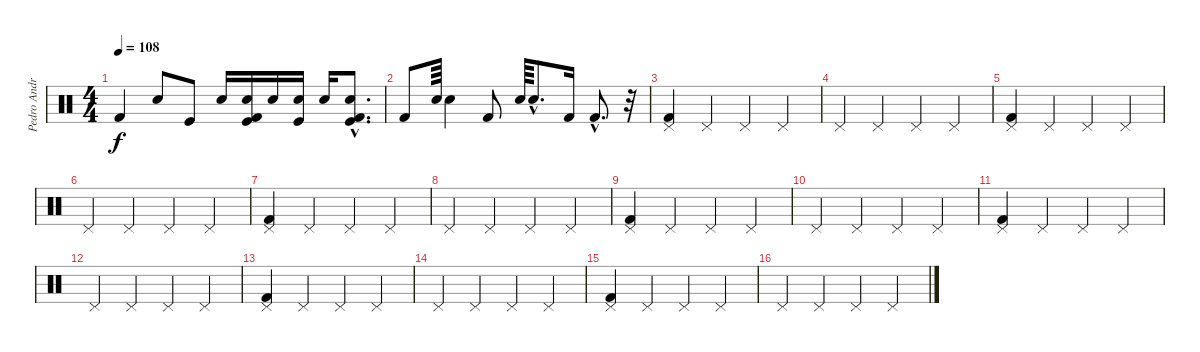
\track ("Pedro Andreu" "Pedro Andr") {instrument percussion}
\staff {score}
\articulation defaults
\ts (4 4)
\tempo 108
\clef neutral
\ks c "Kick (hit) 2".4{dy f} "Snare (hit) 2".8 "Kick (hit)".8 "Snare (hit) 2".16
("Snare (hit) 2" "Kick (hit) 2" "Kick (hit)").16 "Snare (hit) 2".16 ("Snare (hit) 2" "Kick (hit)").16 "Snare (hit) 2".16 ("Snare (hit) 2"{hac} "Kick (hit)"{hac} "Kick (hit) 2"{hac}).8{d} |
"Kick (hit) 2".8 "Snare (hit) 2".64 "Snare (hit) 2".4 "Kick (hit) 2".8 "Snare (hit) 2".64 "Snare (hit) 2"{hac}.8{d} "Kick (hit) 2".16 "Kick (hit) 2"{hac}.8{d} r.32 |
("Kick (hit) 2" "Pedal Hi-Hat (hit)").4 "Pedal Hi-Hat (hit)".4 "Pedal Hi-Hat (hit)".4 "Pedal Hi-Hat (hit)".4 |
"Pedal Hi-Hat (hit)".4 "Pedal Hi-Hat (hit)".4 "Pedal Hi-Hat (hit)".4 "Pedal Hi-Hat (hit)".4 |
("Kick (hit) 2" "Pedal Hi-Hat (hit)").4 "Pedal Hi-Hat (hit)".4 "Pedal Hi-Hat (hit)".4 "Pedal Hi-Hat (hit)".4 |
"Pedal Hi-Hat (hit)".4 "Pedal Hi-Hat (hit)".4 "Pedal Hi-Hat (hit)".4 "Pedal Hi-Hat (hit)".4 |
("Kick (hit) 2" "Pedal Hi-Hat (hit)").4 "Pedal Hi-Hat (hit)".4 "Pedal Hi-Hat (hit)".4 "Pedal Hi-Hat (hit)".4 |
"Pedal Hi-Hat (hit)".4 "Pedal Hi-Hat (hit)".4 "Pedal Hi-Hat (hit)".4 "Pedal Hi-Hat (hit)".4 |
("Kick (hit) 2" "Pedal Hi-Hat (hit)").4 "Pedal Hi-Hat (hit)".4 "Pedal Hi-Hat (hit)".4 "Pedal Hi-Hat (hit)".4 |
"Pedal Hi-Hat (hit)".4 "Pedal Hi-Hat (hit)".4 "Pedal Hi-Hat (hit)".4 "Pedal Hi-Hat (hit)".4 |
("Kick (hit) 2" "Pedal Hi-Hat (hit)").4 "Pedal Hi-Hat (hit)".4 "Pedal Hi-Hat (hit)".4 "Pedal Hi-Hat (hit)".4 |
"Pedal Hi-Hat (hit)".4 "Pedal Hi-Hat (hit)".4 "Pedal Hi-Hat (hit)".4 "Pedal Hi-Hat (hit)".4 |
("Kick (hit) 2" "Pedal Hi-Hat (hit)").4 "Pedal Hi-Hat (hit)".4 "Pedal Hi-Hat (hit)".4 "Pedal Hi-Hat (hit)".4 |
"Pedal Hi-Hat (hit)".4 "Pedal Hi-Hat (hit)".4 "Pedal Hi-Hat (hit)".4 "Pedal Hi-Hat (hit)".4 |
("Kick (hit) 2" "Pedal Hi-Hat (hit)").4 "Pedal Hi-Hat (hit)".4 "Pedal Hi-Hat (hit)".4 "Pedal Hi-Hat (hit)".4 |
"Pedal Hi-Hat (hit)".4 "Pedal Hi-Hat (hit)".4 "Pedal Hi-Hat (hit)".4 "Pedal Hi-Hat (hit)".4
